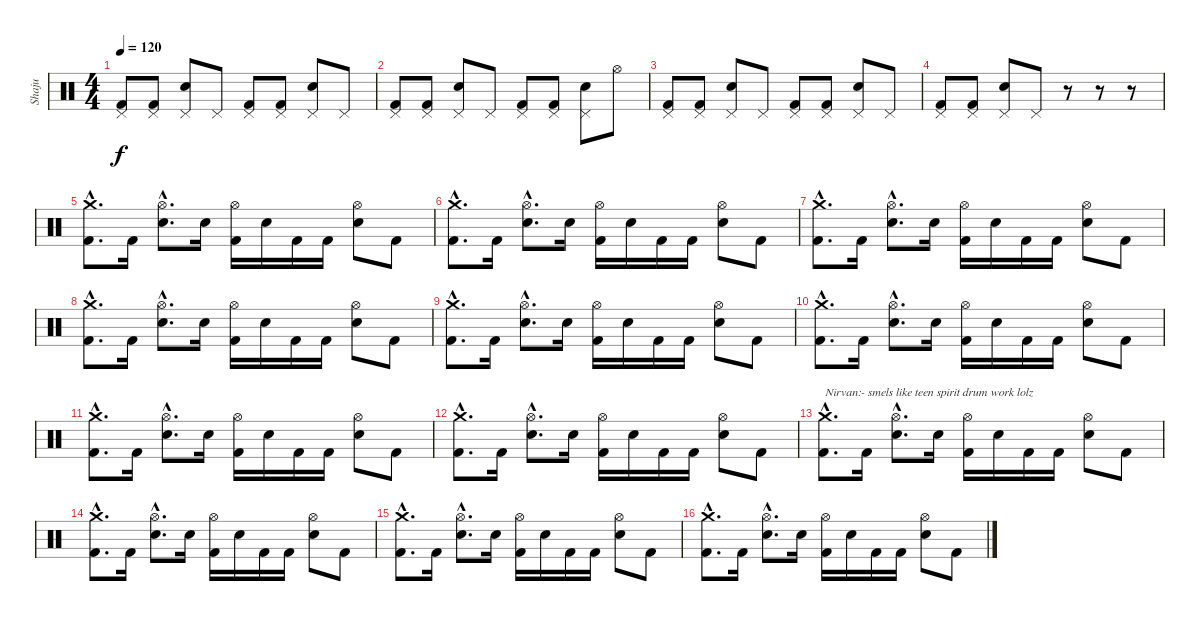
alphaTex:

\track ("Shaju" "Shaju") {instrument percussion}
\staff {score}
\articulation defaults
\ts (4 4)
\tempo 120
\clef neutral
\ks c
("Pedal Hi-Hat (hit)" "Kick (hit) 2").8{dy f} ("Pedal Hi-Hat (hit)" "Kick (hit) 2").8 ("Pedal Hi-Hat (hit)" "Electric Snare (hit)").8 "Pedal Hi-Hat (hit)".8 ("Pedal Hi-Hat (hit)" "Kick (hit) 2").8 ("Pedal Hi-Hat (hit)" "Kick (hit) 2").8 ("Pedal Hi-Hat (hit)" "Electric Snare (hit)").8 "Pedal Hi-Hat (hit)".8 |
("Pedal Hi-Hat (hit)" "Kick (hit) 2").8 ("Pedal Hi-Hat (hit)" "Kick (hit) 2").8 ("Pedal Hi-Hat (hit)" "Electric Snare (hit)").8 "Pedal Hi-Hat (hit)".8 ("Pedal Hi-Hat (hit)" "Kick (hit) 2").8 ("Pedal Hi-Hat (hit)" "Kick (hit) 2").8 ("Pedal Hi-Hat (hit)" "Electric Snare (hit)").8 "Hi-Hat (open)".8 |
("Pedal Hi-Hat (hit)" "Kick (hit) 2").8 ("Pedal Hi-Hat (hit)" "Kick (hit) 2").8 ("Pedal Hi-Hat (hit)" "Electric Snare (hit)").8 "Pedal Hi-Hat (hit)".8 ("Pedal Hi-Hat (hit)" "Kick (hit) 2").8 ("Pedal Hi-Hat (hit)" "Kick (hit) 2").8 ("Pedal Hi-Hat (hit)" "Electric Snare (hit)").8 "Pedal Hi-Hat (hit)".8 |
("Pedal Hi-Hat (hit)" "Kick (hit) 2").8 ("Pedal Hi-Hat (hit)" "Kick (hit) 2").8 ("Pedal Hi-Hat (hit)" "Electric Snare (hit)").8 "Pedal Hi-Hat (hit)".8 r.8 r.8 r.8 |
("Crash medium (hit)"{hac} "Kick (hit) 2"{hac}).8{d} "Kick (hit) 2".16 ("Hi-Hat (open)"{hac} "Electric Snare (hit)"{hac}).8{d} "Electric Snare (hit)".16 ("Hi-Hat (open)" "Kick (hit) 2").16 "Electric Snare (hit)".16 "Kick (hit) 2".16 "Kick (hit) 2".16 ("Hi-Hat (open)" "Electric Snare (hit)").8 "Kick (hit) 2".8 |
("Crash medium (hit)"{hac} "Kick (hit) 2"{hac}).8{d} "Kick (hit) 2".16 ("Hi-Hat (open)"{hac} "Electric Snare (hit)"{hac}).8{d} "Electric Snare (hit)".16 ("Hi-Hat (open)" "Kick (hit) 2").16 "Electric Snare (hit)".16 "Kick (hit) 2".16 "Kick (hit) 2".16 ("Hi-Hat (open)" "Electric Snare (hit)").8 "Kick (hit) 2".8 |
("Crash medium (hit)"{hac} "Kick (hit) 2"{hac}).8{d} "Kick (hit) 2".16 ("Hi-Hat (open)"{hac} "Electric Snare (hit)"{hac}).8{d} "Electric Snare (hit)".16 ("Hi-Hat (open)" "Kick (hit) 2").16 "Electric Snare (hit)".16 "Kick (hit) 2".16 "Kick (hit) 2".16 ("Hi-Hat (open)" "Electric Snare (hit)").8 "Kick (hit) 2".8 |
("Crash medium (hit)"{hac} "Kick (hit) 2"{hac}).8{d} "Kick (hit) 2".16 ("Hi-Hat (open)"{hac} "Electric Snare (hit)"{hac}).8{d} "Electric Snare (hit)".16 ("Hi-Hat (open)" "Kick (hit) 2").16 "Electric Snare (hit)".16 "Kick (hit) 2".16 "Kick (hit) 2".16 ("Hi-Hat (open)" "Electric Snare (hit)").8 "Kick (hit) 2".8 |
("Crash medium (hit)"{hac} "Kick (hit) 2"{hac}).8{d} "Kick (hit) 2".16 ("Hi-Hat (open)"{hac} "Electric Snare (hit)"{hac}).8{d} "Electric Snare (hit)".16 ("Hi-Hat (open)" "Kick (hit) 2").16 "Electric Snare (hit)".16 "Kick (hit) 2".16 "Kick (hit) 2".16 ("Hi-Hat (open)" "Electric Snare (hit)").8 "Kick (hit) 2".8 |
("Crash medium (hit)"{hac} "Kick (hit) 2"{hac}).8{d} "Kick (hit) 2".16 ("Hi-Hat (open)"{hac} "Electric Snare (hit)"{hac}).8{d} "Electric Snare (hit)".16 ("Hi-Hat (open)" "Kick (hit) 2").16 "Electric Snare (hit)".16 "Kick (hit) 2".16 "Kick (hit) 2".16 ("Hi-Hat (open)" "Electric Snare (hit)").8 "Kick (hit) 2".8 |
("Crash medium (hit)"{hac} "Kick (hit) 2"{hac}).8{d} "Kick (hit) 2".16 ("Hi-Hat (open)"{hac} "Electric Snare (hit)"{hac}).8{d} "Electric Snare (hit)".16 ("Hi-Hat (open)" "Kick (hit) 2").16 "Electric Snare (hit)".16 "Kick (hit) 2".16 "Kick (hit) 2".16 ("Hi-Hat (open)" "Electric Snare (hit)").8 "Kick (hit) 2".8 |
("Crash medium (hit)"{hac} "Kick (hit) 2"{hac}).8{d} "Kick (hit) 2".16 ("Hi-Hat (open)"{hac} "Electric Snare (hit)"{hac}).8{d} "Electric Snare (hit)".16 ("Hi-Hat (open)" "Kick (hit) 2").16 "Electric Snare (hit)".16 "Kick (hit) 2".16 "Kick (hit) 2".16 ("Hi-Hat (open)" "Electric Snare (hit)").8 "Kick (hit) 2".8 |
("Crash medium (hit)"{hac} "Kick (hit) 2"{hac}).8{d txt "Nirvan:- smels like teen spirit drum work lolz"} "Kick (hit) 2".16 ("Hi-Hat (open)"{hac} "Electric Snare (hit)"{hac}).8{d} "Electric Snare (hit)".16 ("Hi-Hat (open)" "Kick (hit) 2").16 "Electric Snare (hit)".16 "Kick (hit) 2".16 "Kick (hit) 2".16 ("Hi-Hat (open)" "Electric Snare (hit)").8 "Kick (hit) 2".8 |
("Crash medium (hit)"{hac} "Kick (hit) 2"{hac}).8{d} "Kick (hit) 2".16 ("Hi-Hat (open)"{hac} "Electric Snare (hit)"{hac}).8{d} "Electric Snare (hit)".16 ("Hi-Hat (open)" "Kick (hit) 2").16 "Electric Snare (hit)".16 "Kick (hit) 2".16 "Kick (hit) 2".16 ("Hi-Hat (open)" "Electric Snare (hit)").8 "Kick (hit) 2".8 |
("Crash medium (hit)"{hac} "Kick (hit) 2"{hac}).8{d} "Kick (hit) 2".16 ("Hi-Hat (open)"{hac} "Electric Snare (hit)"{hac}).8{d} "Electric Snare (hit)".16 ("Hi-Hat (open)" "Kick (hit) 2").16 "Electric Snare (hit)".16 "Kick (hit) 2".16 "Kick (hit) 2".16 ("Hi-Hat (open)" "Electric Snare (hit)").8 "Kick (hit) 2".8 |
("Crash medium (hit)"{hac} "Kick (hit) 2"{hac}).8{d} "Kick (hit) 2".16 ("Hi-Hat (open)"{hac} "Electric Snare (hit)"{hac}).8{d} "Electric Snare (hit)".16 ("Hi-Hat (open)" "Kick (hit) 2").16 "Electric Snare (hit)".16 "Kick (hit) 2".16 "Kick (hit) 2".16 ("Hi-Hat (open)" "Electric Snare (hit)").8 "Kick (hit) 2".8
